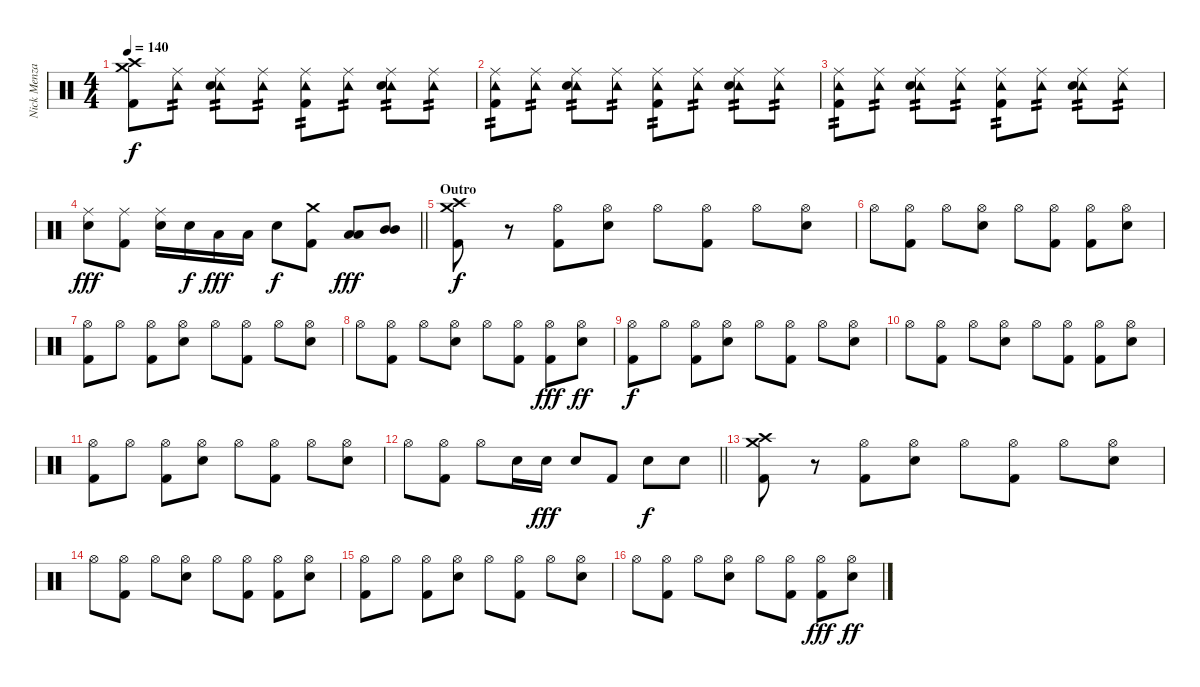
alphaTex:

\track ("Nick Menza" "Nick Menza") {instrument percussion}
\staff {score}
\articulation defaults
\ts (4 4)
\tempo 140
\clef neutral
\ks c
("Crash high (hit)" "Crash medium (hit)" "Kick (hit) 2").8{dy f} ("Tambourine (hit)" "Ride (middle)").8{tp 2} ("Tambourine (hit)" "Ride (middle)" "Snare (hit) 2").8{tp 2} ("Tambourine (hit)" "Ride (middle)").8{tp 2} ("Tambourine (hit)" "Ride (middle)" "Kick (hit) 2").8{tp 2} ("Tambourine (hit)" "Ride (middle)").8{tp 2} ("Tambourine (hit)" "Ride (middle)" "Snare (hit) 2").8{tp 2} ("Tambourine (hit)" "Ride (middle)").8{tp 2} |
("Tambourine (hit)" "Ride (middle)" "Kick (hit) 2").8{tp 2} ("Tambourine (hit)" "Ride (middle)").8{tp 2} ("Tambourine (hit)" "Ride (middle)" "Snare (hit) 2").8{tp 2} ("Tambourine (hit)" "Ride (middle)").8{tp 2} ("Tambourine (hit)" "Ride (middle)" "Kick (hit) 2").8{tp 2} ("Tambourine (hit)" "Ride (middle)").8{tp 2} ("Tambourine (hit)" "Ride (middle)" "Snare (hit) 2").8{tp 2} ("Tambourine (hit)" "Ride (middle)").8{tp 2} |
("Tambourine (hit)" "Ride (middle)" "Kick (hit) 2").8{tp 2} ("Tambourine (hit)" "Ride (middle)").8{tp 2} ("Tambourine (hit)" "Ride (middle)" "Snare (hit) 2").8{tp 2} ("Tambourine (hit)" "Ride (middle)").8{tp 2} ("Tambourine (hit)" "Ride (middle)" "Kick (hit) 2").8{tp 2} ("Tambourine (hit)" "Ride (middle)").8{tp 2} ("Tambourine (hit)" "Ride (middle)" "Snare (hit) 2").8{tp 2} ("Tambourine (hit)" "Ride (middle)").8{tp 2} |
\barLineRight lightlight
("Ride (middle)" "Snare (hit) 2").8{dy fff} ("Ride (middle)" "Kick (hit) 2").8 ("Ride (middle)" "Snare (hit) 2").16 "Snare (hit) 2".16{dy f} "Low Tom (hit)".16{dy fff} "Low Tom (hit)".16 "Snare (hit) 2".8{dy f} ("Crash medium (hit)" "Kick (hit) 2").8 ("Low Tom (hit)" "Low Tom (hit)").8{dy fff} ("Mid Tom (hit)" "Mid Tom (hit)").8 |
\section ("" "Outro")
("Crash high (hit)" "Crash medium (hit)" "Kick (hit) 2").8{dy f} r.8 ("Hi-Hat (open)" "Kick (hit) 2").8 ("Hi-Hat (open)" "Snare (hit) 2").8 "Hi-Hat (open)".8 ("Hi-Hat (open)" "Kick (hit) 2").8 "Hi-Hat (open)".8 ("Hi-Hat (open)" "Snare (hit) 2").8 |
"Hi-Hat (open)".8 ("Hi-Hat (open)" "Kick (hit) 2").8 "Hi-Hat (open)".8 ("Hi-Hat (open)" "Snare (hit) 2").8 "Hi-Hat (open)".8 ("Hi-Hat (open)" "Kick (hit) 2").8 ("Hi-Hat (open)" "Kick (hit) 2").8 ("Hi-Hat (open)" "Snare (hit) 2").8 |
("Hi-Hat (open)" "Kick (hit) 2").8 "Hi-Hat (open)".8 ("Hi-Hat (open)" "Kick (hit) 2").8 ("Hi-Hat (open)" "Snare (hit) 2").8 "Hi-Hat (open)".8 ("Hi-Hat (open)" "Kick (hit) 2").8 "Hi-Hat (open)".8 ("Hi-Hat (open)" "Snare (hit) 2").8 |
"Hi-Hat (open)".8 ("Hi-Hat (open)" "Kick (hit) 2").8 "Hi-Hat (open)".8 ("Hi-Hat (open)" "Snare (hit) 2").8 "Hi-Hat (open)".8 ("Hi-Hat (open)" "Kick (hit) 2").8 ("Hi-Hat (open)" "Kick (hit) 2").8{dy fff} ("Hi-Hat (open)" "Snare (hit) 2").8{dy ff} |
("Hi-Hat (open)" "Kick (hit) 2").8{dy f} "Hi-Hat (open)".8 ("Hi-Hat (open)" "Kick (hit) 2").8 ("Hi-Hat (open)" "Snare (hit) 2").8 "Hi-Hat (open)".8 ("Hi-Hat (open)" "Kick (hit) 2").8 "Hi-Hat (open)".8 ("Hi-Hat (open)" "Snare (hit) 2").8 |
"Hi-Hat (open)".8 ("Hi-Hat (open)" "Kick (hit) 2").8 "Hi-Hat (open)".8 ("Hi-Hat (open)" "Snare (hit) 2").8 "Hi-Hat (open)".8 ("Hi-Hat (open)" "Kick (hit) 2").8 ("Hi-Hat (open)" "Kick (hit) 2").8 ("Hi-Hat (open)" "Snare (hit) 2").8 |
("Hi-Hat (open)" "Kick (hit) 2").8 "Hi-Hat (open)".8 ("Hi-Hat (open)" "Kick (hit) 2").8 ("Hi-Hat (open)" "Snare (hit) 2").8 "Hi-Hat (open)".8 ("Hi-Hat (open)" "Kick (hit) 2").8 "Hi-Hat (open)".8 ("Hi-Hat (open)" "Snare (hit) 2").8 |
\barLineRight lightlight "Hi-Hat (open)".8
("Hi-Hat (open)" "Kick (hit) 2").8 "Hi-Hat (open)".8 "Snare (hit) 2".16 "Snare (hit) 2".16{dy fff} "Snare (hit) 2".8 "Kick (hit) 2".8 "Snare (hit) 2".8{dy f} "Snare (hit) 2".8 |
("Crash high (hit)" "Crash medium (hit)" "Kick (hit) 2").8 r.8 ("Hi-Hat (open)" "Kick (hit) 2").8 ("Hi-Hat (open)" "Snare (hit) 2").8 "Hi-Hat (open)".8 ("Hi-Hat (open)" "Kick (hit) 2").8 "Hi-Hat (open)".8 ("Hi-Hat (open)" "Snare (hit) 2").8 |
"Hi-Hat (open)".8 ("Hi-Hat (open)" "Kick (hit) 2").8 "Hi-Hat (open)".8 ("Hi-Hat (open)" "Snare (hit) 2").8 "Hi-Hat (open)".8 ("Hi-Hat (open)" "Kick (hit) 2").8 ("Hi-Hat (open)" "Kick (hit) 2").8 ("Hi-Hat (open)" "Snare (hit) 2").8 |
("Hi-Hat (open)" "Kick (hit) 2").8 "Hi-Hat (open)".8 ("Hi-Hat (open)" "Kick (hit) 2").8 ("Hi-Hat (open)" "Snare (hit) 2").8 "Hi-Hat (open)".8 ("Hi-Hat (open)" "Kick (hit) 2").8 "Hi-Hat (open)".8 ("Hi-Hat (open)" "Snare (hit) 2").8 |
"Hi-Hat (open)".8 ("Hi-Hat (open)" "Kick (hit) 2").8 "Hi-Hat (open)".8 ("Hi-Hat (open)" "Snare (hit) 2").8 "Hi-Hat (open)".8 ("Hi-Hat (open)" "Kick (hit) 2").8 ("Hi-Hat (open)" "Kick (hit) 2").8{dy fff} ("Hi-Hat (open)" "Snare (hit) 2").8{dy ff}
